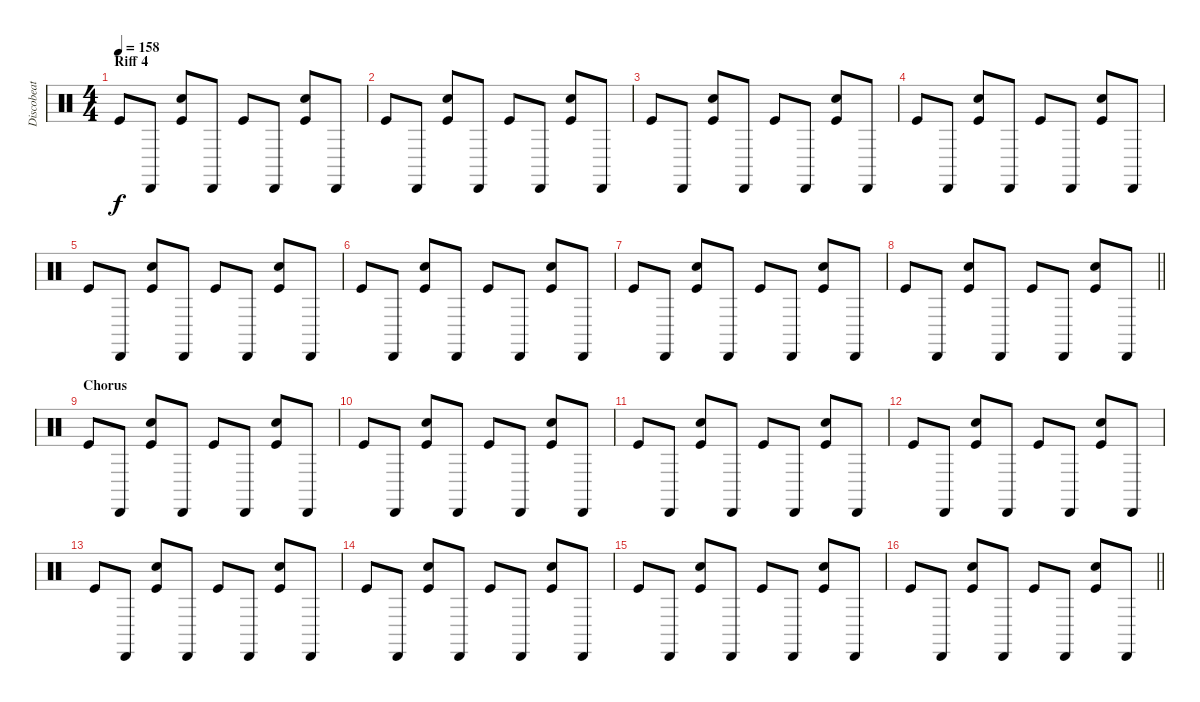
\track ("Discobeat" "Discobeat") {instrument percussion}
\staff {score}
\articulation defaults
\ts (4 4)
\section ("" "Riff 4")
\tempo 158
\clef neutral
\ks c "Kick (hit)".8{dy f} "Cabasa (hit)".8
("Kick (hit)" "Electric Snare (hit)").8 "Cabasa (hit)".8 "Kick (hit)".8 "Cabasa (hit)".8 ("Kick (hit)" "Electric Snare (hit)").8 "Cabasa (hit)".8 |
"Kick (hit)".8 "Cabasa (hit)".8 ("Kick (hit)" "Electric Snare (hit)").8 "Cabasa (hit)".8 "Kick (hit)".8 "Cabasa (hit)".8 ("Kick (hit)" "Electric Snare (hit)").8 "Cabasa (hit)".8 |
"Kick (hit)".8 "Cabasa (hit)".8 ("Kick (hit)" "Electric Snare (hit)").8 "Cabasa (hit)".8 "Kick (hit)".8 "Cabasa (hit)".8 ("Kick (hit)" "Electric Snare (hit)").8 "Cabasa (hit)".8 |
"Kick (hit)".8 "Cabasa (hit)".8 ("Kick (hit)" "Electric Snare (hit)").8 "Cabasa (hit)".8 "Kick (hit)".8 "Cabasa (hit)".8 ("Kick (hit)" "Electric Snare (hit)").8 "Cabasa (hit)".8 |
"Kick (hit)".8 "Cabasa (hit)".8 ("Kick (hit)" "Electric Snare (hit)").8 "Cabasa (hit)".8 "Kick (hit)".8 "Cabasa (hit)".8 ("Kick (hit)" "Electric Snare (hit)").8 "Cabasa (hit)".8 |
"Kick (hit)".8 "Cabasa (hit)".8 ("Kick (hit)" "Electric Snare (hit)").8 "Cabasa (hit)".8 "Kick (hit)".8 "Cabasa (hit)".8 ("Kick (hit)" "Electric Snare (hit)").8 "Cabasa (hit)".8 |
"Kick (hit)".8 "Cabasa (hit)".8 ("Kick (hit)" "Electric Snare (hit)").8 "Cabasa (hit)".8 "Kick (hit)".8 "Cabasa (hit)".8 ("Kick (hit)" "Electric Snare (hit)").8 "Cabasa (hit)".8 |
\barLineRight lightlight "Kick (hit)".8 "Cabasa (hit)".8
("Kick (hit)" "Electric Snare (hit)").8 "Cabasa (hit)".8 "Kick (hit)".8 "Cabasa (hit)".8 ("Kick (hit)" "Electric Snare (hit)").8 "Cabasa (hit)".8 |
\section ("" "Chorus")
"Kick (hit)".8 "Cabasa (hit)".8 ("Kick (hit)" "Electric Snare (hit)").8 "Cabasa (hit)".8 "Kick (hit)".8 "Cabasa (hit)".8 ("Kick (hit)" "Electric Snare (hit)").8 "Cabasa (hit)".8 |
"Kick (hit)".8 "Cabasa (hit)".8 ("Kick (hit)" "Electric Snare (hit)").8 "Cabasa (hit)".8 "Kick (hit)".8 "Cabasa (hit)".8 ("Kick (hit)" "Electric Snare (hit)").8 "Cabasa (hit)".8 |
"Kick (hit)".8 "Cabasa (hit)".8 ("Kick (hit)" "Electric Snare (hit)").8 "Cabasa (hit)".8 "Kick (hit)".8 "Cabasa (hit)".8 ("Kick (hit)" "Electric Snare (hit)").8 "Cabasa (hit)".8 |
"Kick (hit)".8 "Cabasa (hit)".8 ("Kick (hit)" "Electric Snare (hit)").8 "Cabasa (hit)".8 "Kick (hit)".8 "Cabasa (hit)".8 ("Kick (hit)" "Electric Snare (hit)").8 "Cabasa (hit)".8 |
"Kick (hit)".8 "Cabasa (hit)".8 ("Kick (hit)" "Electric Snare (hit)").8 "Cabasa (hit)".8 "Kick (hit)".8 "Cabasa (hit)".8 ("Kick (hit)" "Electric Snare (hit)").8 "Cabasa (hit)".8 |
"Kick (hit)".8 "Cabasa (hit)".8 ("Kick (hit)" "Electric Snare (hit)").8 "Cabasa (hit)".8 "Kick (hit)".8 "Cabasa (hit)".8 ("Kick (hit)" "Electric Snare (hit)").8 "Cabasa (hit)".8 |
"Kick (hit)".8 "Cabasa (hit)".8 ("Kick (hit)" "Electric Snare (hit)").8 "Cabasa (hit)".8 "Kick (hit)".8 "Cabasa (hit)".8 ("Kick (hit)" "Electric Snare (hit)").8 "Cabasa (hit)".8 |
\barLineRight lightlight "Kick (hit)".8 "Cabasa (hit)".8
("Kick (hit)" "Electric Snare (hit)").8 "Cabasa (hit)".8 "Kick (hit)".8 "Cabasa (hit)".8 ("Kick (hit)" "Electric Snare (hit)").8 "Cabasa (hit)".8
